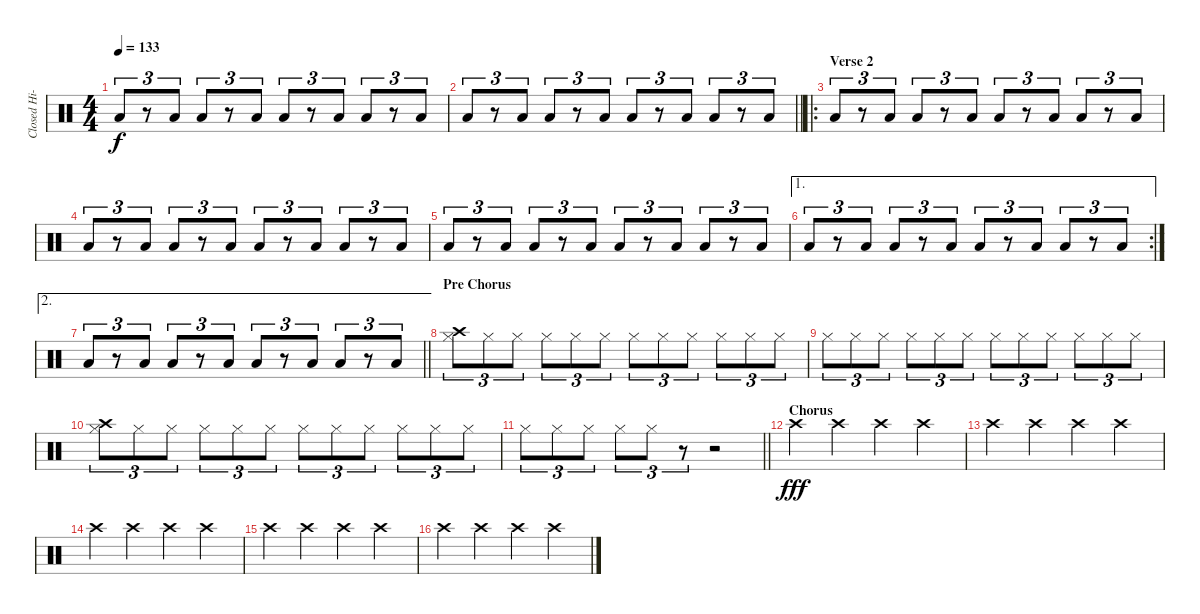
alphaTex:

\track ("Closed Hi-hat/Synth" "Closed Hi-") {instrument percussion}
\staff {score}
\articulation defaults
\ts (4 4)
\tempo 133
\clef neutral
\ks c "Low Floor Tom (hit)".8{tu (3 2) dy f}
r.8{tu (3 2)} "Low Floor Tom (hit)".8{tu (3 2)} "Low Floor Tom (hit)".8{tu (3 2)} r.8{tu (3 2)} "Low Floor Tom (hit)".8{tu (3 2)} "Low Floor Tom (hit)".8{tu (3 2)} r.8{tu (3 2)} "Low Floor Tom (hit)".8{tu (3 2)} "Low Floor Tom (hit)".8{tu (3 2)} r.8{tu (3 2)} "Low Floor Tom (hit)".8{tu (3 2)} |
\barLineRight lightlight "Low Floor Tom (hit)".8{tu (3 2)}
r.8{tu (3 2)} "Low Floor Tom (hit)".8{tu (3 2)} "Low Floor Tom (hit)".8{tu (3 2)} r.8{tu (3 2)} "Low Floor Tom (hit)".8{tu (3 2)} "Low Floor Tom (hit)".8{tu (3 2)} r.8{tu (3 2)} "Low Floor Tom (hit)".8{tu (3 2)} "Low Floor Tom (hit)".8{tu (3 2)} r.8{tu (3 2)} "Low Floor Tom (hit)".8{tu (3 2)} |
\ro
\section ("" "Verse 2")
"Low Floor Tom (hit)".8{tu (3 2)} r.8{tu (3 2)} "Low Floor Tom (hit)".8{tu (3 2)} "Low Floor Tom (hit)".8{tu (3 2)} r.8{tu (3 2)} "Low Floor Tom (hit)".8{tu (3 2)} "Low Floor Tom (hit)".8{tu (3 2)} r.8{tu (3 2)} "Low Floor Tom (hit)".8{tu (3 2)} "Low Floor Tom (hit)".8{tu (3 2)} r.8{tu (3 2)} "Low Floor Tom (hit)".8{tu (3 2)} |
"Low Floor Tom (hit)".8{tu (3 2)} r.8{tu (3 2)} "Low Floor Tom (hit)".8{tu (3 2)} "Low Floor Tom (hit)".8{tu (3 2)} r.8{tu (3 2)} "Low Floor Tom (hit)".8{tu (3 2)} "Low Floor Tom (hit)".8{tu (3 2)} r.8{tu (3 2)} "Low Floor Tom (hit)".8{tu (3 2)} "Low Floor Tom (hit)".8{tu (3 2)} r.8{tu (3 2)} "Low Floor Tom (hit)".8{tu (3 2)} |
"Low Floor Tom (hit)".8{tu (3 2)} r.8{tu (3 2)} "Low Floor Tom (hit)".8{tu (3 2)} "Low Floor Tom (hit)".8{tu (3 2)} r.8{tu (3 2)} "Low Floor Tom (hit)".8{tu (3 2)} "Low Floor Tom (hit)".8{tu (3 2)} r.8{tu (3 2)} "Low Floor Tom (hit)".8{tu (3 2)} "Low Floor Tom (hit)".8{tu (3 2)} r.8{tu (3 2)} "Low Floor Tom (hit)".8{tu (3 2)} |
\ae 1
\rc 2 "Low Floor Tom (hit)".8{tu (3 2)}
r.8{tu (3 2)} "Low Floor Tom (hit)".8{tu (3 2)} "Low Floor Tom (hit)".8{tu (3 2)} r.8{tu (3 2)} "Low Floor Tom (hit)".8{tu (3 2)} "Low Floor Tom (hit)".8{tu (3 2)} r.8{tu (3 2)} "Low Floor Tom (hit)".8{tu (3 2)} "Low Floor Tom (hit)".8{tu (3 2)} r.8{tu (3 2)} "Low Floor Tom (hit)".8{tu (3 2)} |
\ae 2
\barLineRight lightlight "Low Floor Tom (hit)".8{tu (3 2)}
r.8{tu (3 2)} "Low Floor Tom (hit)".8{tu (3 2)} "Low Floor Tom (hit)".8{tu (3 2)} r.8{tu (3 2)} "Low Floor Tom (hit)".8{tu (3 2)} "Low Floor Tom (hit)".8{tu (3 2)} r.8{tu (3 2)} "Low Floor Tom (hit)".8{tu (3 2)} "Low Floor Tom (hit)".8{tu (3 2)} r.8{tu (3 2)} "Low Floor Tom (hit)".8{tu (3 2)} |
\section ("" "Pre Chorus")
("Crash high (hit)" "Hi-Hat (closed)").8{tu (3 2)} "Hi-Hat (closed)".8{tu (3 2)} "Hi-Hat (closed)".8{tu (3 2)} "Hi-Hat (closed)".8{tu (3 2)} "Hi-Hat (closed)".8{tu (3 2)} "Hi-Hat (closed)".8{tu (3 2)} "Hi-Hat (closed)".8{tu (3 2)} "Hi-Hat (closed)".8{tu (3 2)} "Hi-Hat (closed)".8{tu (3 2)} "Hi-Hat (closed)".8{tu (3 2)} "Hi-Hat (closed)".8{tu (3 2)} "Hi-Hat (closed)".8{tu (3 2)} |
"Hi-Hat (closed)".8{tu (3 2)} "Hi-Hat (closed)".8{tu (3 2)} "Hi-Hat (closed)".8{tu (3 2)} "Hi-Hat (closed)".8{tu (3 2)} "Hi-Hat (closed)".8{tu (3 2)} "Hi-Hat (closed)".8{tu (3 2)} "Hi-Hat (closed)".8{tu (3 2)} "Hi-Hat (closed)".8{tu (3 2)} "Hi-Hat (closed)".8{tu (3 2)} "Hi-Hat (closed)".8{tu (3 2)} "Hi-Hat (closed)".8{tu (3 2)} "Hi-Hat (closed)".8{tu (3 2)} |
("Crash high (hit)" "Hi-Hat (closed)").8{tu (3 2)} "Hi-Hat (closed)".8{tu (3 2)} "Hi-Hat (closed)".8{tu (3 2)} "Hi-Hat (closed)".8{tu (3 2)} "Hi-Hat (closed)".8{tu (3 2)} "Hi-Hat (closed)".8{tu (3 2)} "Hi-Hat (closed)".8{tu (3 2)} "Hi-Hat (closed)".8{tu (3 2)} "Hi-Hat (closed)".8{tu (3 2)} "Hi-Hat (closed)".8{tu (3 2)} "Hi-Hat (closed)".8{tu (3 2)} "Hi-Hat (closed)".8{tu (3 2)} |
\barLineRight lightlight "Hi-Hat (closed)".8{tu (3 2)} "Hi-Hat (closed)".8{tu (3 2)} "Hi-Hat (closed)".8{tu (3 2)} "Hi-Hat (closed)".8{tu (3 2)} "Hi-Hat (closed)".8{tu (3 2)}
r.8{tu (3 2)} r.2 |
\section ("" "Chorus")
"Crash high (hit)".4{dy fff} "Crash high (hit)".4 "Crash high (hit)".4 "Crash high (hit)".4 |
"Crash high (hit)".4 "Crash high (hit)".4 "Crash high (hit)".4 "Crash high (hit)".4 |
"Crash high (hit)".4 "Crash high (hit)".4 "Crash high (hit)".4 "Crash high (hit)".4 |
"Crash high (hit)".4 "Crash high (hit)".4 "Crash high (hit)".4 "Crash high (hit)".4 |
"Crash high (hit)".4 "Crash high (hit)".4 "Crash high (hit)".4 "Crash high (hit)".4
